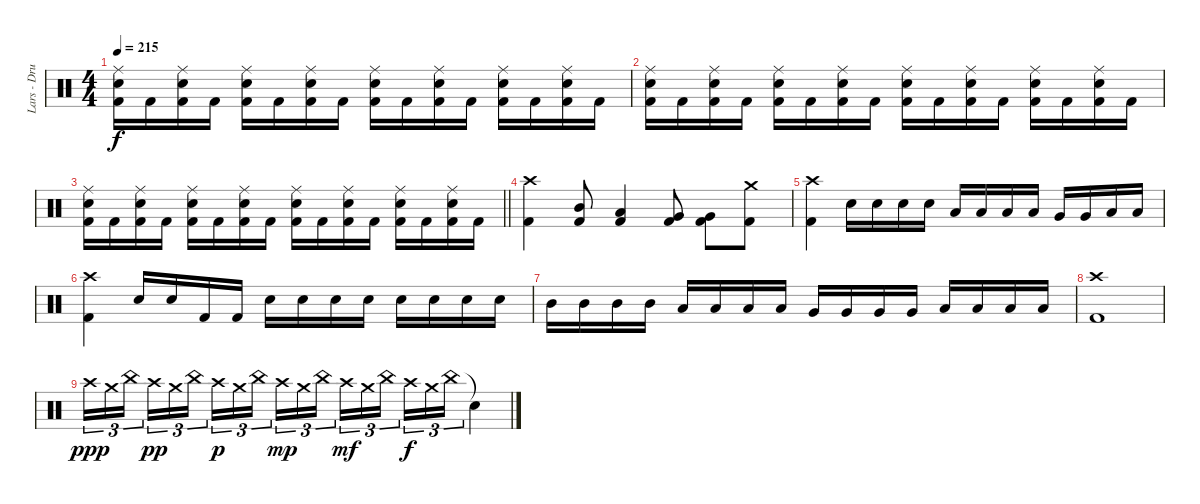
\track ("Lars - Drums" "Lars - Dru") {instrument percussion}
\staff {score}
\articulation defaults
\ts (4 4)
\tempo 215
\clef neutral
\ks c
("Kick (hit) 2" "Electric Snare (hit)" "Ride (middle)").16{dy f} "Kick (hit) 2".16 ("Kick (hit) 2" "Electric Snare (hit)" "Ride (middle)").16 "Kick (hit) 2".16 ("Kick (hit) 2" "Electric Snare (hit)" "Ride (middle)").16 "Kick (hit) 2".16 ("Kick (hit) 2" "Electric Snare (hit)" "Ride (middle)").16 "Kick (hit) 2".16 ("Kick (hit) 2" "Electric Snare (hit)" "Ride (middle)").16 "Kick (hit) 2".16 ("Kick (hit) 2" "Electric Snare (hit)" "Ride (middle)").16 "Kick (hit) 2".16 ("Kick (hit) 2" "Electric Snare (hit)" "Ride (middle)").16 "Kick (hit) 2".16 ("Kick (hit) 2" "Electric Snare (hit)" "Ride (middle)").16 "Kick (hit) 2".16 |
("Kick (hit) 2" "Electric Snare (hit)" "Ride (middle)").16 "Kick (hit) 2".16 ("Kick (hit) 2" "Electric Snare (hit)" "Ride (middle)").16 "Kick (hit) 2".16 ("Kick (hit) 2" "Electric Snare (hit)" "Ride (middle)").16 "Kick (hit) 2".16 ("Kick (hit) 2" "Electric Snare (hit)" "Ride (middle)").16 "Kick (hit) 2".16 ("Kick (hit) 2" "Electric Snare (hit)" "Ride (middle)").16 "Kick (hit) 2".16 ("Kick (hit) 2" "Electric Snare (hit)" "Ride (middle)").16 "Kick (hit) 2".16 ("Kick (hit) 2" "Electric Snare (hit)" "Ride (middle)").16 "Kick (hit) 2".16 ("Kick (hit) 2" "Electric Snare (hit)" "Ride (middle)").16 "Kick (hit) 2".16 |
\barLineRight lightlight
("Kick (hit) 2" "Electric Snare (hit)" "Ride (middle)").16 "Kick (hit) 2".16 ("Kick (hit) 2" "Electric Snare (hit)" "Ride (middle)").16 "Kick (hit) 2".16 ("Kick (hit) 2" "Electric Snare (hit)" "Ride (middle)").16 "Kick (hit) 2".16 ("Kick (hit) 2" "Electric Snare (hit)" "Ride (middle)").16 "Kick (hit) 2".16 ("Kick (hit) 2" "Electric Snare (hit)" "Ride (middle)").16 "Kick (hit) 2".16 ("Kick (hit) 2" "Electric Snare (hit)" "Ride (middle)").16 "Kick (hit) 2".16 ("Kick (hit) 2" "Electric Snare (hit)" "Ride (middle)").16 "Kick (hit) 2".16 ("Kick (hit) 2" "Electric Snare (hit)" "Ride (middle)").16 "Kick (hit) 2".16 |
\section ("" "")
("Kick (hit) 2" "Crash high (hit)").4 ("Kick (hit) 2" "Mid Tom (hit)").8 ("Kick (hit) 2" "Low Tom (hit)").4 ("Kick (hit) 2" "Very Low Tom (hit)").8 ("Kick (hit) 2" "Very Low Tom (hit)").8 ("Kick (hit) 2" "Crash medium (hit)").8 |
("Kick (hit) 2" "Crash high (hit)").4 "Electric Snare (hit)".16 "Electric Snare (hit)".16 "Electric Snare (hit)".16 "Electric Snare (hit)".16 "Low Tom (hit)".16 "Low Tom (hit)".16 "Low Tom (hit)".16 "Low Tom (hit)".16 "Very Low Tom (hit)".16 "Very Low Tom (hit)".16 "Low Floor Tom (hit)".16 "Low Floor Tom (hit)".16 |
("Kick (hit) 2" "Crash high (hit)").4 "Electric Snare (hit)".16 "Electric Snare (hit)".16 "Kick (hit) 2".16 "Kick (hit) 2".16 "Electric Snare (hit)".16 "Electric Snare (hit)".16 "Electric Snare (hit)".16 "Electric Snare (hit)".16 "Electric Snare (hit)".16 "Electric Snare (hit)".16 "Electric Snare (hit)".16 "Electric Snare (hit)".16 |
"Mid Tom (hit)".16 "Mid Tom (hit)".16 "Mid Tom (hit)".16 "Mid Tom (hit)".16 "Low Tom (hit)".16 "Low Tom (hit)".16 "Low Tom (hit)".16 "Low Tom (hit)".16 "Very Low Tom (hit)".16 "Very Low Tom (hit)".16 "Very Low Tom (hit)".16 "Very Low Tom (hit)".16 "Low Floor Tom (hit)".16 "Low Floor Tom (hit)".16 "Low Floor Tom (hit)".16 "Low Floor Tom (hit)".16 |
("Kick (hit) 2" "Crash high (hit)").1 |
"Crash high (hit)".16{tu (3 2) dy ppp} "Crash medium (hit)".16{tu (3 2)} "China (hit)".16{tu (3 2)} "Crash high (hit)".16{tu (3 2) dy pp} "Crash medium (hit)".16{tu (3 2)} "China (hit)".16{tu (3 2)} "Crash high (hit)".16{tu (3 2) dy p} "Crash medium (hit)".16{tu (3 2)} "China (hit)".16{tu (3 2)} "Crash high (hit)".16{tu (3 2) dy mp} "Crash medium (hit)".16{tu (3 2)} "China (hit)".16{tu (3 2)} "Crash high (hit)".16{tu (3 2) dy mf} "Crash medium (hit)".16{tu (3 2)} "China (hit)".16{tu (3 2)} "Crash high (hit)".16{tu (3 2) dy f} "Crash medium (hit)".16{tu (3 2)} "China (hit)".16{tu (3 2)} "Snare (hit)"{t}.4
